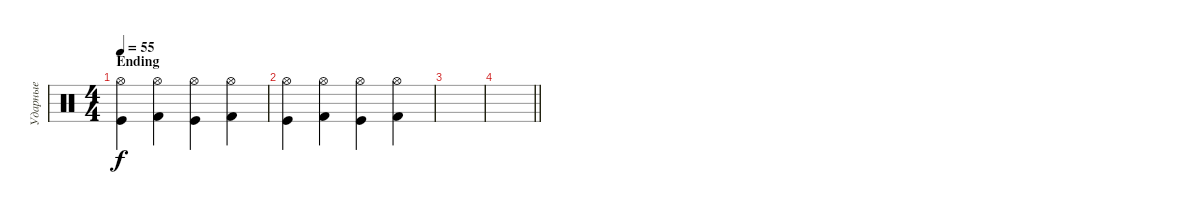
\track ("Ударные" "Ударные") {instrument percussion}
\staff {score}
\articulation defaults
\ts (4 4)
\section ("" "Ending")
\tempo 55
\clef neutral
\ks c
("Hi-Hat (open)" "Kick (hit)").4{dy f} ("Hi-Hat (open)" "Kick (hit) 2").4 ("Hi-Hat (open)" "Kick (hit)").4 ("Hi-Hat (open)" "Kick (hit) 2").4 |
("Hi-Hat (open)" "Kick (hit)").4 ("Hi-Hat (open)" "Kick (hit) 2").4 ("Hi-Hat (open)" "Kick (hit)").4 ("Hi-Hat (open)" "Kick (hit) 2").4 |
|
\barLineRight lightlight
